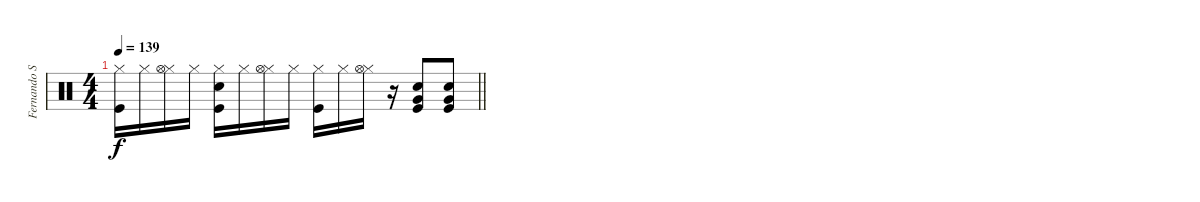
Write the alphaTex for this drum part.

\track ("Fernando Samalea (Bateria)" "Fernando S") {instrument percussion}
\staff {score}
\articulation defaults
\ts (4 4)
\tempo 139
\clef neutral
\barLineRight lightlight
\ks c
("Kick (hit)" "Hi-Hat (closed)").16{dy f} "Hi-Hat (closed)".16 ("Hi-Hat (closed)" "Hi-Hat (open)").16 "Hi-Hat (closed)".16 ("Kick (hit)" "Snare (hit) 2" "Hi-Hat (closed)").16 "Hi-Hat (closed)".16 ("Hi-Hat (closed)" "Hi-Hat (open)").16 "Hi-Hat (closed)".16 ("Kick (hit)" "Hi-Hat (closed)").16 "Hi-Hat (closed)".16 ("Hi-Hat (closed)" "Hi-Hat (open)").16 r.16 ("Kick (hit)" "Snare (hit) 2" "Very Low Tom (hit)").8 ("Kick (hit)" "Snare (hit) 2" "Very Low Tom (hit)").8
